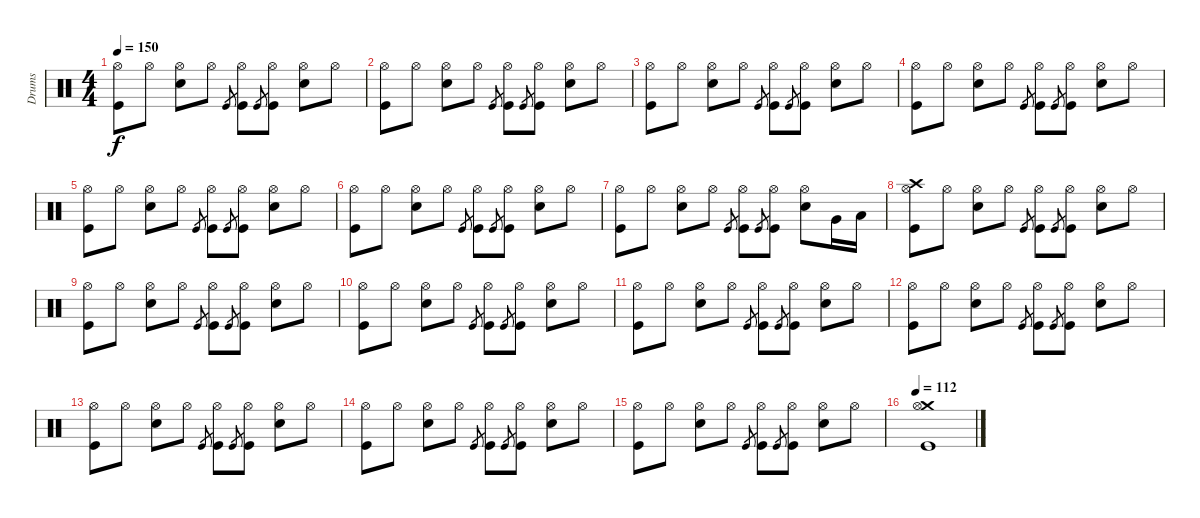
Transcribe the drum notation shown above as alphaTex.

\track ("Drums" "Drums") {instrument percussion}
\staff {score}
\articulation defaults
\ts (4 4)
\tempo 150
\clef neutral
\ks c
("Hi-Hat (open)" "Kick (hit)").8{dy f} "Hi-Hat (open)".8 ("Hi-Hat (open)" "Snare (hit) 2").8 "Hi-Hat (open)".8 "Kick (hit)".8{gr} ("Hi-Hat (open)" "Kick (hit)").8 "Kick (hit)".8{gr} ("Hi-Hat (open)" "Kick (hit)").8 ("Hi-Hat (open)" "Snare (hit) 2").8 "Hi-Hat (open)".8 |
("Hi-Hat (open)" "Kick (hit)").8 "Hi-Hat (open)".8 ("Hi-Hat (open)" "Snare (hit) 2").8 "Hi-Hat (open)".8 "Kick (hit)".8{gr} ("Hi-Hat (open)" "Kick (hit)").8 "Kick (hit)".8{gr} ("Hi-Hat (open)" "Kick (hit)").8 ("Hi-Hat (open)" "Snare (hit) 2").8 "Hi-Hat (open)".8 |
("Hi-Hat (open)" "Kick (hit)").8 "Hi-Hat (open)".8 ("Hi-Hat (open)" "Snare (hit) 2").8 "Hi-Hat (open)".8 "Kick (hit)".8{gr} ("Hi-Hat (open)" "Kick (hit)").8 "Kick (hit)".8{gr} ("Hi-Hat (open)" "Kick (hit)").8 ("Hi-Hat (open)" "Snare (hit) 2").8 "Hi-Hat (open)".8 |
("Hi-Hat (open)" "Kick (hit)").8 "Hi-Hat (open)".8 ("Hi-Hat (open)" "Snare (hit) 2").8 "Hi-Hat (open)".8 "Kick (hit)".8{gr} ("Hi-Hat (open)" "Kick (hit)").8 "Kick (hit)".8{gr} ("Hi-Hat (open)" "Kick (hit)").8 ("Hi-Hat (open)" "Snare (hit) 2").8 "Hi-Hat (open)".8 |
("Hi-Hat (open)" "Kick (hit)").8 "Hi-Hat (open)".8 ("Hi-Hat (open)" "Snare (hit) 2").8 "Hi-Hat (open)".8 "Kick (hit)".8{gr} ("Hi-Hat (open)" "Kick (hit)").8 "Kick (hit)".8{gr} ("Hi-Hat (open)" "Kick (hit)").8 ("Hi-Hat (open)" "Snare (hit) 2").8 "Hi-Hat (open)".8 |
("Hi-Hat (open)" "Kick (hit)").8 "Hi-Hat (open)".8 ("Hi-Hat (open)" "Snare (hit) 2").8 "Hi-Hat (open)".8 "Kick (hit)".8{gr} ("Hi-Hat (open)" "Kick (hit)").8 "Kick (hit)".8{gr} ("Hi-Hat (open)" "Kick (hit)").8 ("Hi-Hat (open)" "Snare (hit) 2").8 "Hi-Hat (open)".8 |
("Hi-Hat (open)" "Kick (hit)").8 "Hi-Hat (open)".8 ("Hi-Hat (open)" "Snare (hit) 2").8 "Hi-Hat (open)".8 "Kick (hit)".8{gr} ("Hi-Hat (open)" "Kick (hit)").8 "Kick (hit)".8{gr} ("Hi-Hat (open)" "Kick (hit)").8 ("Hi-Hat (open)" "Snare (hit) 2").8 "Very Low Tom (hit)".16 "Low Floor Tom (hit)".16 |
("Crash high (hit)" "Hi-Hat (open)" "Kick (hit)").8 "Hi-Hat (open)".8 ("Hi-Hat (open)" "Snare (hit) 2").8 "Hi-Hat (open)".8 "Kick (hit)".8{gr} ("Hi-Hat (open)" "Kick (hit)").8 "Kick (hit)".8{gr} ("Hi-Hat (open)" "Kick (hit)").8 ("Hi-Hat (open)" "Snare (hit) 2").8 "Hi-Hat (open)".8 |
("Hi-Hat (open)" "Kick (hit)").8 "Hi-Hat (open)".8 ("Hi-Hat (open)" "Snare (hit) 2").8 "Hi-Hat (open)".8 "Kick (hit)".8{gr} ("Hi-Hat (open)" "Kick (hit)").8 "Kick (hit)".8{gr} ("Hi-Hat (open)" "Kick (hit)").8 ("Hi-Hat (open)" "Snare (hit) 2").8 "Hi-Hat (open)".8 |
("Hi-Hat (open)" "Kick (hit)").8 "Hi-Hat (open)".8 ("Hi-Hat (open)" "Snare (hit) 2").8 "Hi-Hat (open)".8 "Kick (hit)".8{gr} ("Hi-Hat (open)" "Kick (hit)").8 "Kick (hit)".8{gr} ("Hi-Hat (open)" "Kick (hit)").8 ("Hi-Hat (open)" "Snare (hit) 2").8 "Hi-Hat (open)".8 |
("Hi-Hat (open)" "Kick (hit)").8 "Hi-Hat (open)".8 ("Hi-Hat (open)" "Snare (hit) 2").8 "Hi-Hat (open)".8 "Kick (hit)".8{gr} ("Hi-Hat (open)" "Kick (hit)").8 "Kick (hit)".8{gr} ("Hi-Hat (open)" "Kick (hit)").8 ("Hi-Hat (open)" "Snare (hit) 2").8 "Hi-Hat (open)".8 |
("Hi-Hat (open)" "Kick (hit)").8 "Hi-Hat (open)".8 ("Hi-Hat (open)" "Snare (hit) 2").8 "Hi-Hat (open)".8 "Kick (hit)".8{gr} ("Hi-Hat (open)" "Kick (hit)").8 "Kick (hit)".8{gr} ("Hi-Hat (open)" "Kick (hit)").8 ("Hi-Hat (open)" "Snare (hit) 2").8 "Hi-Hat (open)".8 |
("Hi-Hat (open)" "Kick (hit)").8 "Hi-Hat (open)".8 ("Hi-Hat (open)" "Snare (hit) 2").8 "Hi-Hat (open)".8 "Kick (hit)".8{gr} ("Hi-Hat (open)" "Kick (hit)").8 "Kick (hit)".8{gr} ("Hi-Hat (open)" "Kick (hit)").8 ("Hi-Hat (open)" "Snare (hit) 2").8 "Hi-Hat (open)".8 |
("Hi-Hat (open)" "Kick (hit)").8 "Hi-Hat (open)".8 ("Hi-Hat (open)" "Snare (hit) 2").8 "Hi-Hat (open)".8 "Kick (hit)".8{gr} ("Hi-Hat (open)" "Kick (hit)").8 "Kick (hit)".8{gr} ("Hi-Hat (open)" "Kick (hit)").8 ("Hi-Hat (open)" "Snare (hit) 2").8 "Hi-Hat (open)".8 |
("Hi-Hat (open)" "Kick (hit)").8 "Hi-Hat (open)".8 ("Hi-Hat (open)" "Snare (hit) 2").8 "Hi-Hat (open)".8 "Kick (hit)".8{gr} ("Hi-Hat (open)" "Kick (hit)").8 "Kick (hit)".8{gr} ("Hi-Hat (open)" "Kick (hit)").8 ("Hi-Hat (open)" "Snare (hit) 2").8 "Hi-Hat (open)".8 |
\tempo 112
("Crash medium (hit)" "Hi-Hat (open)" "Kick (hit)").1
